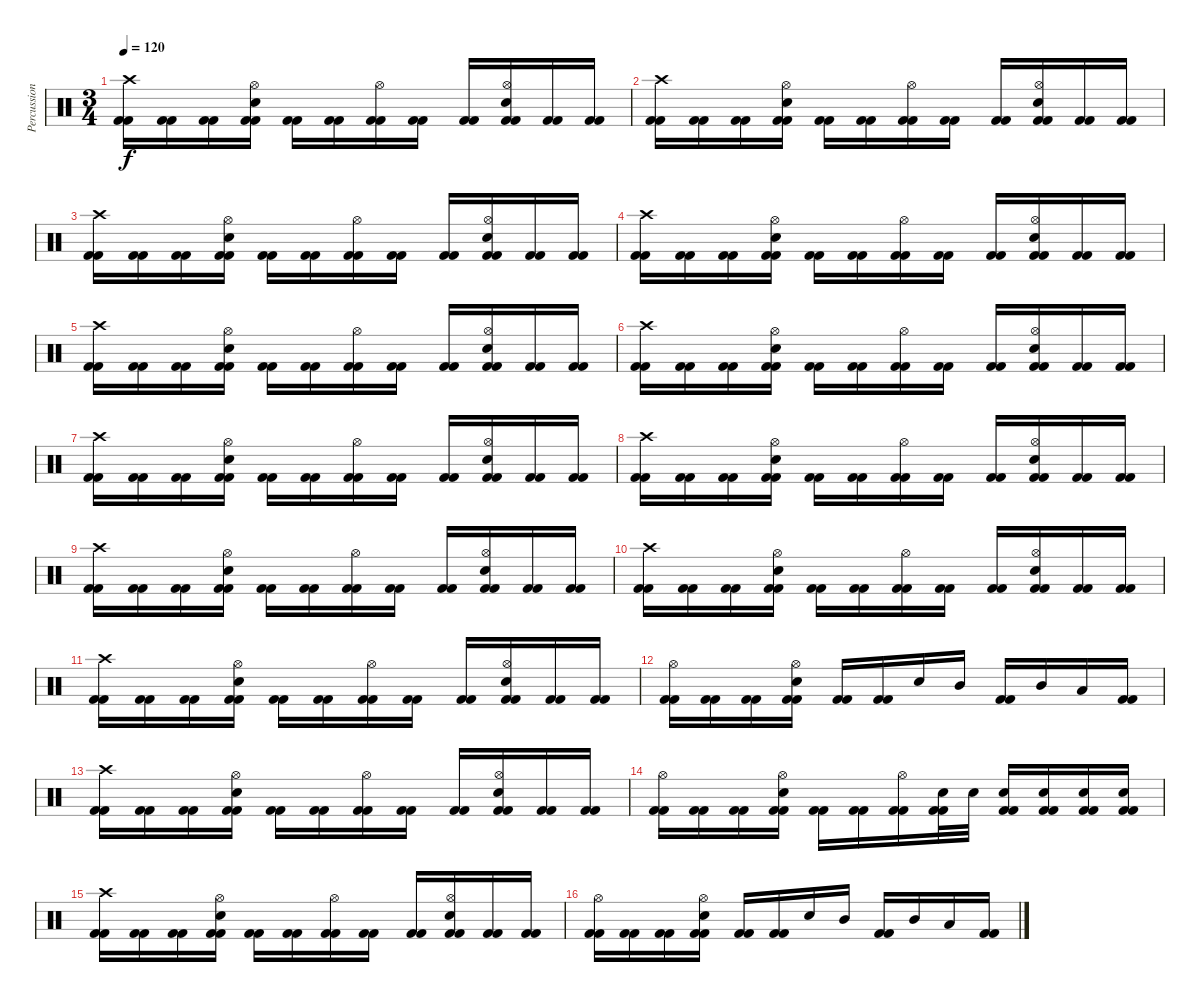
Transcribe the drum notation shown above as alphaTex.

\track ("Percussion" "Percussion") {instrument percussion}
\staff {score}
\articulation defaults
\ts (3 4)
\tempo 120
\clef neutral
\ks c
("Crash high (hit)" "Kick (hit) 2" "Kick (hit) 2").16{dy f} ("Kick (hit) 2" "Kick (hit) 2").16 ("Kick (hit) 2" "Kick (hit) 2").16 ("Hi-Hat (open)" "Snare (hit) 2" "Kick (hit) 2" "Kick (hit) 2").16 ("Kick (hit) 2" "Kick (hit) 2").16 ("Kick (hit) 2" "Kick (hit) 2").16 ("Hi-Hat (open)" "Kick (hit) 2" "Kick (hit) 2").16 ("Kick (hit) 2" "Kick (hit) 2").16 ("Kick (hit) 2" "Kick (hit) 2").16 ("Hi-Hat (open)" "Snare (hit) 2" "Kick (hit) 2" "Kick (hit) 2").16 ("Kick (hit) 2" "Kick (hit) 2").16 ("Kick (hit) 2" "Kick (hit) 2").16 |
("Crash high (hit)" "Kick (hit) 2" "Kick (hit) 2").16 ("Kick (hit) 2" "Kick (hit) 2").16 ("Kick (hit) 2" "Kick (hit) 2").16 ("Hi-Hat (open)" "Snare (hit) 2" "Kick (hit) 2" "Kick (hit) 2").16 ("Kick (hit) 2" "Kick (hit) 2").16 ("Kick (hit) 2" "Kick (hit) 2").16 ("Hi-Hat (open)" "Kick (hit) 2" "Kick (hit) 2").16 ("Kick (hit) 2" "Kick (hit) 2").16 ("Kick (hit) 2" "Kick (hit) 2").16 ("Hi-Hat (open)" "Snare (hit) 2" "Kick (hit) 2" "Kick (hit) 2").16 ("Kick (hit) 2" "Kick (hit) 2").16 ("Kick (hit) 2" "Kick (hit) 2").16 |
("Crash high (hit)" "Kick (hit) 2" "Kick (hit) 2").16 ("Kick (hit) 2" "Kick (hit) 2").16 ("Kick (hit) 2" "Kick (hit) 2").16 ("Hi-Hat (open)" "Snare (hit) 2" "Kick (hit) 2" "Kick (hit) 2").16 ("Kick (hit) 2" "Kick (hit) 2").16 ("Kick (hit) 2" "Kick (hit) 2").16 ("Hi-Hat (open)" "Kick (hit) 2" "Kick (hit) 2").16 ("Kick (hit) 2" "Kick (hit) 2").16 ("Kick (hit) 2" "Kick (hit) 2").16 ("Hi-Hat (open)" "Snare (hit) 2" "Kick (hit) 2" "Kick (hit) 2").16 ("Kick (hit) 2" "Kick (hit) 2").16 ("Kick (hit) 2" "Kick (hit) 2").16 |
("Crash high (hit)" "Kick (hit) 2" "Kick (hit) 2").16 ("Kick (hit) 2" "Kick (hit) 2").16 ("Kick (hit) 2" "Kick (hit) 2").16 ("Hi-Hat (open)" "Snare (hit) 2" "Kick (hit) 2" "Kick (hit) 2").16 ("Kick (hit) 2" "Kick (hit) 2").16 ("Kick (hit) 2" "Kick (hit) 2").16 ("Hi-Hat (open)" "Kick (hit) 2" "Kick (hit) 2").16 ("Kick (hit) 2" "Kick (hit) 2").16 ("Kick (hit) 2" "Kick (hit) 2").16 ("Hi-Hat (open)" "Snare (hit) 2" "Kick (hit) 2" "Kick (hit) 2").16 ("Kick (hit) 2" "Kick (hit) 2").16 ("Kick (hit) 2" "Kick (hit) 2").16 |
("Crash high (hit)" "Kick (hit) 2" "Kick (hit) 2").16 ("Kick (hit) 2" "Kick (hit) 2").16 ("Kick (hit) 2" "Kick (hit) 2").16 ("Hi-Hat (open)" "Snare (hit) 2" "Kick (hit) 2" "Kick (hit) 2").16 ("Kick (hit) 2" "Kick (hit) 2").16 ("Kick (hit) 2" "Kick (hit) 2").16 ("Hi-Hat (open)" "Kick (hit) 2" "Kick (hit) 2").16 ("Kick (hit) 2" "Kick (hit) 2").16 ("Kick (hit) 2" "Kick (hit) 2").16 ("Hi-Hat (open)" "Snare (hit) 2" "Kick (hit) 2" "Kick (hit) 2").16 ("Kick (hit) 2" "Kick (hit) 2").16 ("Kick (hit) 2" "Kick (hit) 2").16 |
("Crash high (hit)" "Kick (hit) 2" "Kick (hit) 2").16 ("Kick (hit) 2" "Kick (hit) 2").16 ("Kick (hit) 2" "Kick (hit) 2").16 ("Hi-Hat (open)" "Snare (hit) 2" "Kick (hit) 2" "Kick (hit) 2").16 ("Kick (hit) 2" "Kick (hit) 2").16 ("Kick (hit) 2" "Kick (hit) 2").16 ("Hi-Hat (open)" "Kick (hit) 2" "Kick (hit) 2").16 ("Kick (hit) 2" "Kick (hit) 2").16 ("Kick (hit) 2" "Kick (hit) 2").16 ("Hi-Hat (open)" "Snare (hit) 2" "Kick (hit) 2" "Kick (hit) 2").16 ("Kick (hit) 2" "Kick (hit) 2").16 ("Kick (hit) 2" "Kick (hit) 2").16 |
("Crash high (hit)" "Kick (hit) 2" "Kick (hit) 2").16 ("Kick (hit) 2" "Kick (hit) 2").16 ("Kick (hit) 2" "Kick (hit) 2").16 ("Hi-Hat (open)" "Snare (hit) 2" "Kick (hit) 2" "Kick (hit) 2").16 ("Kick (hit) 2" "Kick (hit) 2").16 ("Kick (hit) 2" "Kick (hit) 2").16 ("Hi-Hat (open)" "Kick (hit) 2" "Kick (hit) 2").16 ("Kick (hit) 2" "Kick (hit) 2").16 ("Kick (hit) 2" "Kick (hit) 2").16 ("Hi-Hat (open)" "Snare (hit) 2" "Kick (hit) 2" "Kick (hit) 2").16 ("Kick (hit) 2" "Kick (hit) 2").16 ("Kick (hit) 2" "Kick (hit) 2").16 |
("Crash high (hit)" "Kick (hit) 2" "Kick (hit) 2").16 ("Kick (hit) 2" "Kick (hit) 2").16 ("Kick (hit) 2" "Kick (hit) 2").16 ("Hi-Hat (open)" "Snare (hit) 2" "Kick (hit) 2" "Kick (hit) 2").16 ("Kick (hit) 2" "Kick (hit) 2").16 ("Kick (hit) 2" "Kick (hit) 2").16 ("Hi-Hat (open)" "Kick (hit) 2" "Kick (hit) 2").16 ("Kick (hit) 2" "Kick (hit) 2").16 ("Kick (hit) 2" "Kick (hit) 2").16 ("Hi-Hat (open)" "Snare (hit) 2" "Kick (hit) 2" "Kick (hit) 2").16 ("Kick (hit) 2" "Kick (hit) 2").16 ("Kick (hit) 2" "Kick (hit) 2").16 |
("Crash high (hit)" "Kick (hit) 2" "Kick (hit) 2").16 ("Kick (hit) 2" "Kick (hit) 2").16 ("Kick (hit) 2" "Kick (hit) 2").16 ("Hi-Hat (open)" "Snare (hit) 2" "Kick (hit) 2" "Kick (hit) 2").16 ("Kick (hit) 2" "Kick (hit) 2").16 ("Kick (hit) 2" "Kick (hit) 2").16 ("Hi-Hat (open)" "Kick (hit) 2" "Kick (hit) 2").16 ("Kick (hit) 2" "Kick (hit) 2").16 ("Kick (hit) 2" "Kick (hit) 2").16 ("Hi-Hat (open)" "Snare (hit) 2" "Kick (hit) 2" "Kick (hit) 2").16 ("Kick (hit) 2" "Kick (hit) 2").16 ("Kick (hit) 2" "Kick (hit) 2").16 |
("Crash high (hit)" "Kick (hit) 2" "Kick (hit) 2").16 ("Kick (hit) 2" "Kick (hit) 2").16 ("Kick (hit) 2" "Kick (hit) 2").16 ("Hi-Hat (open)" "Snare (hit) 2" "Kick (hit) 2" "Kick (hit) 2").16 ("Kick (hit) 2" "Kick (hit) 2").16 ("Kick (hit) 2" "Kick (hit) 2").16 ("Hi-Hat (open)" "Kick (hit) 2" "Kick (hit) 2").16 ("Kick (hit) 2" "Kick (hit) 2").16 ("Kick (hit) 2" "Kick (hit) 2").16 ("Hi-Hat (open)" "Snare (hit) 2" "Kick (hit) 2" "Kick (hit) 2").16 ("Kick (hit) 2" "Kick (hit) 2").16 ("Kick (hit) 2" "Kick (hit) 2").16 |
("Crash high (hit)" "Kick (hit) 2" "Kick (hit) 2").16 ("Kick (hit) 2" "Kick (hit) 2").16 ("Kick (hit) 2" "Kick (hit) 2").16 ("Hi-Hat (open)" "Snare (hit) 2" "Kick (hit) 2" "Kick (hit) 2").16 ("Kick (hit) 2" "Kick (hit) 2").16 ("Kick (hit) 2" "Kick (hit) 2").16 ("Hi-Hat (open)" "Kick (hit) 2" "Kick (hit) 2").16 ("Kick (hit) 2" "Kick (hit) 2").16 ("Kick (hit) 2" "Kick (hit) 2").16 ("Hi-Hat (open)" "Snare (hit) 2" "Kick (hit) 2" "Kick (hit) 2").16 ("Kick (hit) 2" "Kick (hit) 2").16 ("Kick (hit) 2" "Kick (hit) 2").16 |
("Hi-Hat (open)" "Kick (hit) 2" "Kick (hit) 2").16 ("Kick (hit) 2" "Kick (hit) 2").16 ("Kick (hit) 2" "Kick (hit) 2").16 ("Hi-Hat (open)" "Snare (hit) 2" "Kick (hit) 2" "Kick (hit) 2").16 ("Kick (hit) 2" "Kick (hit) 2").16 ("Kick (hit) 2" "Kick (hit) 2").16 "Snare (hit) 2".16 "Mid Tom (hit)".16 ("Kick (hit) 2" "Kick (hit) 2").16 "Mid Tom (hit)".16 "Low Tom (hit)".16 ("Kick (hit) 2" "Kick (hit) 2").16 |
("Crash high (hit)" "Kick (hit) 2" "Kick (hit) 2").16 ("Kick (hit) 2" "Kick (hit) 2").16 ("Kick (hit) 2" "Kick (hit) 2").16 ("Hi-Hat (open)" "Snare (hit) 2" "Kick (hit) 2" "Kick (hit) 2").16 ("Kick (hit) 2" "Kick (hit) 2").16 ("Kick (hit) 2" "Kick (hit) 2").16 ("Hi-Hat (open)" "Kick (hit) 2" "Kick (hit) 2").16 ("Kick (hit) 2" "Kick (hit) 2").16 ("Kick (hit) 2" "Kick (hit) 2").16 ("Hi-Hat (open)" "Snare (hit) 2" "Kick (hit) 2" "Kick (hit) 2").16 ("Kick (hit) 2" "Kick (hit) 2").16 ("Kick (hit) 2" "Kick (hit) 2").16 |
("Hi-Hat (open)" "Kick (hit) 2" "Kick (hit) 2").16 ("Kick (hit) 2" "Kick (hit) 2").16 ("Kick (hit) 2" "Kick (hit) 2").16 ("Hi-Hat (open)" "Snare (hit) 2" "Kick (hit) 2" "Kick (hit) 2").16 ("Kick (hit) 2" "Kick (hit) 2").16 ("Kick (hit) 2" "Kick (hit) 2").16 ("Hi-Hat (open)" "Kick (hit) 2" "Kick (hit) 2").16 ("Snare (hit) 2" "Kick (hit) 2" "Kick (hit) 2").32 "Snare (hit) 2".32 ("Snare (hit) 2" "Kick (hit) 2" "Kick (hit) 2").16 ("Snare (hit) 2" "Kick (hit) 2" "Kick (hit) 2").16 ("Snare (hit) 2" "Kick (hit) 2" "Kick (hit) 2").16 ("Snare (hit) 2" "Kick (hit) 2" "Kick (hit) 2").16 |
("Crash high (hit)" "Kick (hit) 2" "Kick (hit) 2").16 ("Kick (hit) 2" "Kick (hit) 2").16 ("Kick (hit) 2" "Kick (hit) 2").16 ("Hi-Hat (open)" "Snare (hit) 2" "Kick (hit) 2" "Kick (hit) 2").16 ("Kick (hit) 2" "Kick (hit) 2").16 ("Kick (hit) 2" "Kick (hit) 2").16 ("Hi-Hat (open)" "Kick (hit) 2" "Kick (hit) 2").16 ("Kick (hit) 2" "Kick (hit) 2").16 ("Kick (hit) 2" "Kick (hit) 2").16 ("Hi-Hat (open)" "Snare (hit) 2" "Kick (hit) 2" "Kick (hit) 2").16 ("Kick (hit) 2" "Kick (hit) 2").16 ("Kick (hit) 2" "Kick (hit) 2").16 |
("Hi-Hat (open)" "Kick (hit) 2" "Kick (hit) 2").16 ("Kick (hit) 2" "Kick (hit) 2").16 ("Kick (hit) 2" "Kick (hit) 2").16 ("Hi-Hat (open)" "Snare (hit) 2" "Kick (hit) 2" "Kick (hit) 2").16 ("Kick (hit) 2" "Kick (hit) 2").16 ("Kick (hit) 2" "Kick (hit) 2").16 "Snare (hit) 2".16 "Mid Tom (hit)".16 ("Kick (hit) 2" "Kick (hit) 2").16 "Mid Tom (hit)".16 "Low Tom (hit)".16 ("Kick (hit) 2" "Kick (hit) 2").16
